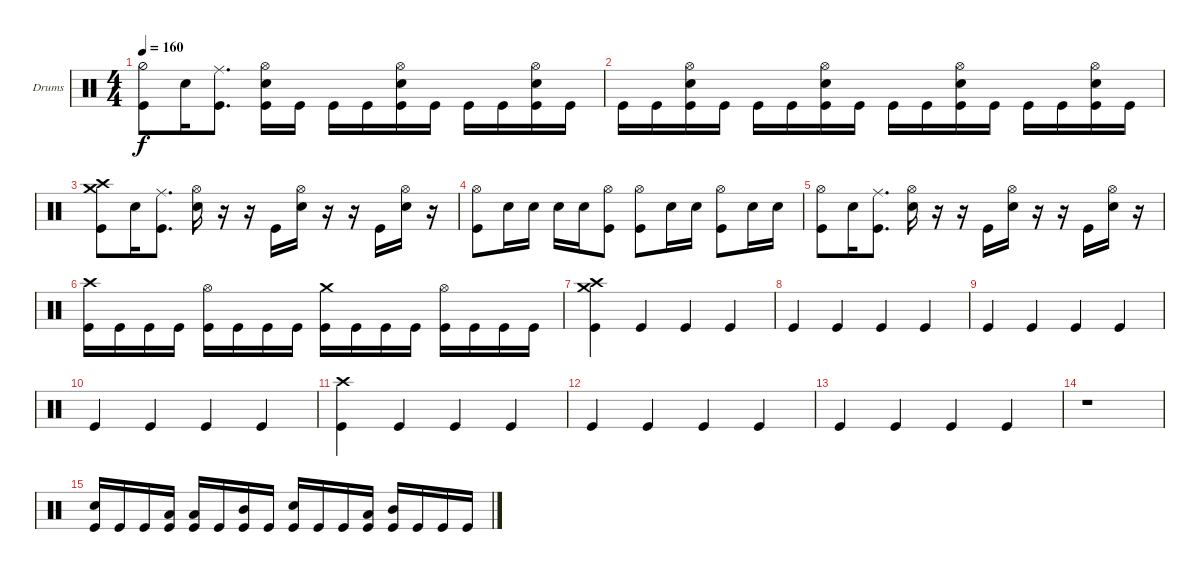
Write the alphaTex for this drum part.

\defaultSystemsLayout 4
\bracketExtendMode groupsimilarinstruments
\firstSystemTrackNameOrientation horizontal
\otherSystemsTrackNameOrientation horizontal
\track ("Moe Carlson" "Drums") {instrument percussion}
\staff {score}
\articulation defaults
\ts (4 4)
\tempo 160
\clef neutral
\ks c
("Kick (hit)" "Hi-Hat (half)").8{dy f} "Snare (hit) 2".16 ("Ride (middle)" "Kick (hit)").8{d} ("Kick (hit)" "Snare (hit) 2" "Hi-Hat (open)").16 "Kick (hit)".16 "Kick (hit)".16 "Kick (hit)".16 ("Kick (hit)" "Hi-Hat (open)" "Snare (hit) 2").16 "Kick (hit)".16 "Kick (hit)".16 "Kick (hit)".16 ("Kick (hit)" "Snare (hit) 2" "Hi-Hat (open)").16 "Kick (hit)".16 |
"Kick (hit)".16 "Kick (hit)".16 ("Kick (hit)" "Snare (hit) 2" "Hi-Hat (open)").16 "Kick (hit)".16 "Kick (hit)".16 "Kick (hit)".16 ("Kick (hit)" "Snare (hit) 2" "Hi-Hat (open)").16 "Kick (hit)".16 "Kick (hit)".16 "Kick (hit)".16 ("Kick (hit)" "Snare (hit) 2" "Hi-Hat (open)").16 "Kick (hit)".16 "Kick (hit)".16 "Kick (hit)".16 ("Kick (hit)" "Snare (hit) 2" "Hi-Hat (open)").16 "Kick (hit)".16 |
("Crash medium (hit)" "Crash high (hit)" "Kick (hit)").8 "Snare (hit) 2".16 ("Ride (middle)" "Kick (hit)").8{d} ("Snare (hit) 2" "Hi-Hat (open)").16 r.16 r.16 "Kick (hit)".16 ("Snare (hit) 2" "Hi-Hat (open)").16 r.16 r.16 "Kick (hit)".16 ("Snare (hit) 2" "Hi-Hat (open)").16 r.16 |
("Kick (hit)" "Hi-Hat (open)").8 "Snare (hit) 2".16 "Snare (hit) 2".16 "Snare (hit) 2".16 "Snare (hit) 2".16 ("Hi-Hat (open)" "Kick (hit)").8 ("Kick (hit)" "Hi-Hat (open)").8 "Snare (hit) 2".16 "Snare (hit) 2".16 ("Hi-Hat (open)" "Kick (hit)").8 "Snare (hit) 2".16 "Snare (hit) 2".16 |
("Kick (hit)" "Hi-Hat (open)").8 "Snare (hit) 2".16 ("Ride (middle)" "Kick (hit)").8{d} ("Snare (hit) 2" "Hi-Hat (open)").16 r.16 r.16 "Kick (hit)".16 ("Snare (hit) 2" "Hi-Hat (open)").16 r.16 r.16 "Kick (hit)".16 ("Snare (hit) 2" "Hi-Hat (open)").16 r.16 |
("Kick (hit)" "Crash high (hit)").16 "Kick (hit)".16 "Kick (hit)".16 "Kick (hit)".16 ("Kick (hit)" "Hi-Hat (open)").16 "Kick (hit)".16 "Kick (hit)".16 "Kick (hit)".16 ("Kick (hit)" "Crash medium (hit)").16 "Kick (hit)".16 "Kick (hit)".16 "Kick (hit)".16 ("Kick (hit)" "Hi-Hat (open)").16 "Kick (hit)".16 "Kick (hit)".16 "Kick (hit)".16 |
\scale
0.474178 ("Crash high (hit)" "Crash medium (hit)" "Kick (hit)").4 "Kick (hit)".4 "Kick (hit)".4 "Kick (hit)".4 |
\scale
0.262911 "Kick (hit)".4 "Kick (hit)".4 "Kick (hit)".4 "Kick (hit)".4 |
\scale
0.262911 "Kick (hit)".4 "Kick (hit)".4 "Kick (hit)".4 "Kick (hit)".4 |
\scale
0.333333 "Kick (hit)".4 "Kick (hit)".4 "Kick (hit)".4 "Kick (hit)".4 |
\scale
0.333333 ("Crash high (hit)" "Kick (hit)").4 "Kick (hit)".4 "Kick (hit)".4 "Kick (hit)".4 |
\scale
0.333333 "Kick (hit)".4 "Kick (hit)".4 "Kick (hit)".4 "Kick (hit)".4 |
"Kick (hit)".4 "Kick (hit)".4 "Kick (hit)".4 "Kick (hit)".4 |
r.1 |
("Snare (hit) 2" "Kick (hit)").16 "Kick (hit)".16 "Kick (hit)".16 ("Kick (hit)" "Low Tom (hit)").16 ("Kick (hit)" "Low Tom (hit)").16 "Kick (hit)".16 ("Kick (hit)" "Mid Tom (hit)").16 "Kick (hit)".16 ("Kick (hit)" "Snare (hit) 2").16 "Kick (hit)".16 "Kick (hit)".16 ("Kick (hit)" "Low Tom (hit)").16 ("Kick (hit)" "Mid Tom (hit)").16 "Kick (hit)".16 "Kick (hit)".16 "Kick (hit)".16
